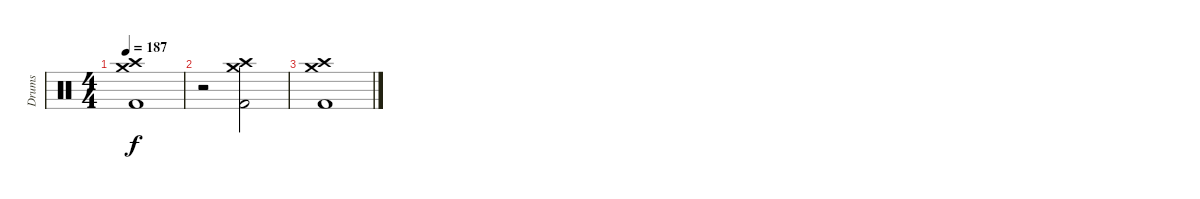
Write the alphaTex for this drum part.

\track ("Drums" "Drums") {instrument percussion}
\staff {score}
\articulation defaults
\ts (4 4)
\tempo 187
\clef neutral
\ks c
("Crash high (hit)" "Crash medium (hit)" "Kick (hit) 2").1{dy f} |
r.2 ("Crash high (hit)" "Crash medium (hit)" "Kick (hit) 2").2 |
("Crash high (hit)" "Crash medium (hit)" "Kick (hit) 2").1
